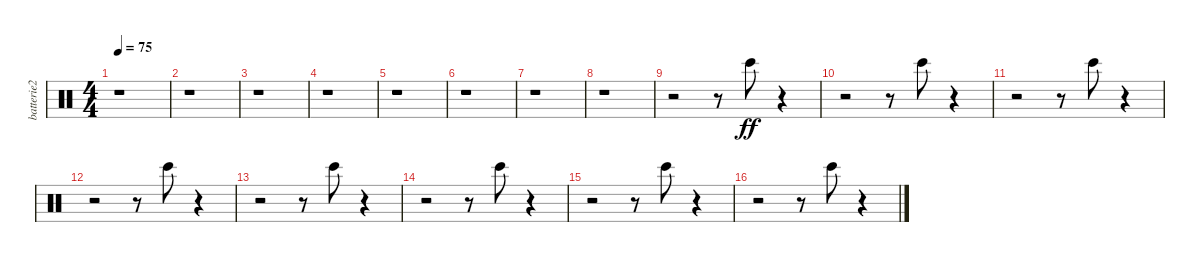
\track ("batterie2" "batterie2") {instrument percussion}
\staff {score}
\articulation defaults
\ts (4 4)
\tempo 75
\clef neutral
\ks c
r.1{dy ff} |
r.1 |
r.1 |
r.1 |
r.1 |
r.1 |
r.1 |
r.1 |
r.2 r.8 "Bongo High (hit)".8 r.4 |
r.2 r.8 "Bongo High (hit)".8 r.4 |
r.2 r.8 "Bongo High (hit)".8 r.4 |
r.2 r.8 "Bongo High (hit)".8 r.4 |
r.2 r.8 "Bongo High (hit)".8 r.4 |
r.2 r.8 "Bongo High (hit)".8 r.4 |
r.2 r.8 "Bongo High (hit)".8 r.4 |
r.2 r.8 "Bongo High (hit)".8 r.4
